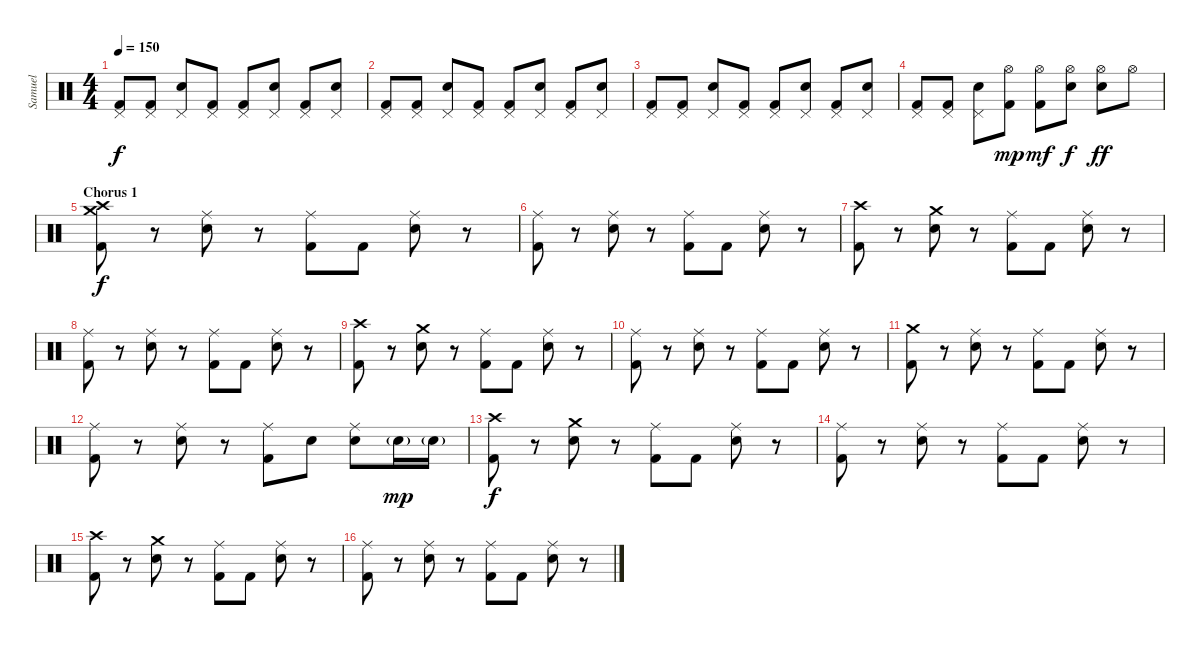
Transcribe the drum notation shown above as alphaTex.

\track ("Samuel" "Samuel") {instrument percussion}
\staff {score}
\articulation defaults
\ts (4 4)
\tempo 150
\clef neutral
\ks c
("Pedal Hi-Hat (hit)" "Kick (hit) 2").8{dy f} ("Pedal Hi-Hat (hit)" "Kick (hit) 2").8 ("Pedal Hi-Hat (hit)" "Snare (hit) 2").8 ("Pedal Hi-Hat (hit)" "Kick (hit) 2").8 ("Pedal Hi-Hat (hit)" "Kick (hit) 2").8 ("Pedal Hi-Hat (hit)" "Snare (hit) 2").8 ("Pedal Hi-Hat (hit)" "Kick (hit) 2").8 ("Pedal Hi-Hat (hit)" "Snare (hit) 2").8 |
("Pedal Hi-Hat (hit)" "Kick (hit) 2").8 ("Pedal Hi-Hat (hit)" "Kick (hit) 2").8 ("Pedal Hi-Hat (hit)" "Snare (hit) 2").8 ("Pedal Hi-Hat (hit)" "Kick (hit) 2").8 ("Pedal Hi-Hat (hit)" "Kick (hit) 2").8 ("Pedal Hi-Hat (hit)" "Snare (hit) 2").8 ("Pedal Hi-Hat (hit)" "Kick (hit) 2").8 ("Pedal Hi-Hat (hit)" "Snare (hit) 2").8 |
("Pedal Hi-Hat (hit)" "Kick (hit) 2").8 ("Pedal Hi-Hat (hit)" "Kick (hit) 2").8 ("Pedal Hi-Hat (hit)" "Snare (hit) 2").8 ("Pedal Hi-Hat (hit)" "Kick (hit) 2").8 ("Pedal Hi-Hat (hit)" "Kick (hit) 2").8 ("Pedal Hi-Hat (hit)" "Snare (hit) 2").8 ("Pedal Hi-Hat (hit)" "Kick (hit) 2").8 ("Pedal Hi-Hat (hit)" "Snare (hit) 2").8 |
("Pedal Hi-Hat (hit)" "Kick (hit) 2").8 ("Pedal Hi-Hat (hit)" "Kick (hit) 2").8 ("Pedal Hi-Hat (hit)" "Snare (hit) 2").8 ("Hi-Hat (open)" "Kick (hit) 2").8{dy mp} ("Hi-Hat (open)" "Kick (hit) 2").8{dy mf} ("Hi-Hat (open)" "Snare (hit) 2").8{dy f} ("Hi-Hat (open)" "Snare (hit) 2").8{dy ff} "Hi-Hat (open)".8 |
\section ("" "Chorus 1")
("Crash medium (hit)" "Crash high (hit)" "Kick (hit) 2").8{dy f} r.8 ("Ride (middle)" "Snare (hit) 2").8 r.8 ("Ride (middle)" "Kick (hit) 2").8 "Kick (hit) 2".8 ("Ride (middle)" "Snare (hit) 2").8 r.8 |
("Ride (middle)" "Kick (hit) 2").8 r.8 ("Ride (middle)" "Snare (hit) 2").8 r.8 ("Ride (middle)" "Kick (hit) 2").8 "Kick (hit) 2".8 ("Ride (middle)" "Snare (hit) 2").8 r.8 |
("Crash high (hit)" "Kick (hit) 2").8 r.8 ("Crash medium (hit)" "Snare (hit) 2").8 r.8 ("Ride (middle)" "Kick (hit) 2").8 "Kick (hit) 2".8 ("Ride (middle)" "Snare (hit) 2").8 r.8 |
("Ride (middle)" "Kick (hit) 2").8 r.8 ("Ride (middle)" "Snare (hit) 2").8 r.8 ("Ride (middle)" "Kick (hit) 2").8 "Kick (hit) 2".8 ("Ride (middle)" "Snare (hit) 2").8 r.8 |
("Crash high (hit)" "Kick (hit) 2").8 r.8 ("Crash medium (hit)" "Snare (hit) 2").8 r.8 ("Ride (middle)" "Kick (hit) 2").8 "Kick (hit) 2".8 ("Ride (middle)" "Snare (hit) 2").8 r.8 |
("Ride (middle)" "Kick (hit) 2").8 r.8 ("Ride (middle)" "Snare (hit) 2").8 r.8 ("Ride (middle)" "Kick (hit) 2").8 "Kick (hit) 2".8 ("Ride (middle)" "Snare (hit) 2").8 r.8 |
("Crash medium (hit)" "Kick (hit) 2").8 r.8 ("Ride (middle)" "Snare (hit) 2").8 r.8 ("Ride (middle)" "Kick (hit) 2").8 "Kick (hit) 2".8 ("Ride (middle)" "Snare (hit) 2").8 r.8 |
("Ride (middle)" "Kick (hit) 2").8 r.8 ("Ride (middle)" "Snare (hit) 2").8 r.8 ("Ride (middle)" "Kick (hit) 2").8 "Snare (hit) 2".8 ("Ride (middle)" "Snare (hit) 2").8 "Snare (hit) 2"{g}.16{dy mp} "Snare (hit) 2"{g}.16 |
("Crash high (hit)" "Kick (hit) 2").8{dy f} r.8 ("Crash medium (hit)" "Snare (hit) 2").8 r.8 ("Ride (middle)" "Kick (hit) 2").8 "Kick (hit) 2".8 ("Ride (middle)" "Snare (hit) 2").8 r.8 |
("Ride (middle)" "Kick (hit) 2").8 r.8 ("Ride (middle)" "Snare (hit) 2").8 r.8 ("Ride (middle)" "Kick (hit) 2").8 "Kick (hit) 2".8 ("Ride (middle)" "Snare (hit) 2").8 r.8 |
("Crash high (hit)" "Kick (hit) 2").8 r.8 ("Crash medium (hit)" "Snare (hit) 2").8 r.8 ("Ride (middle)" "Kick (hit) 2").8 "Kick (hit) 2".8 ("Ride (middle)" "Snare (hit) 2").8 r.8 |
("Ride (middle)" "Kick (hit) 2").8 r.8 ("Ride (middle)" "Snare (hit) 2").8 r.8 ("Ride (middle)" "Kick (hit) 2").8 "Kick (hit) 2".8 ("Ride (middle)" "Snare (hit) 2").8 r.8
